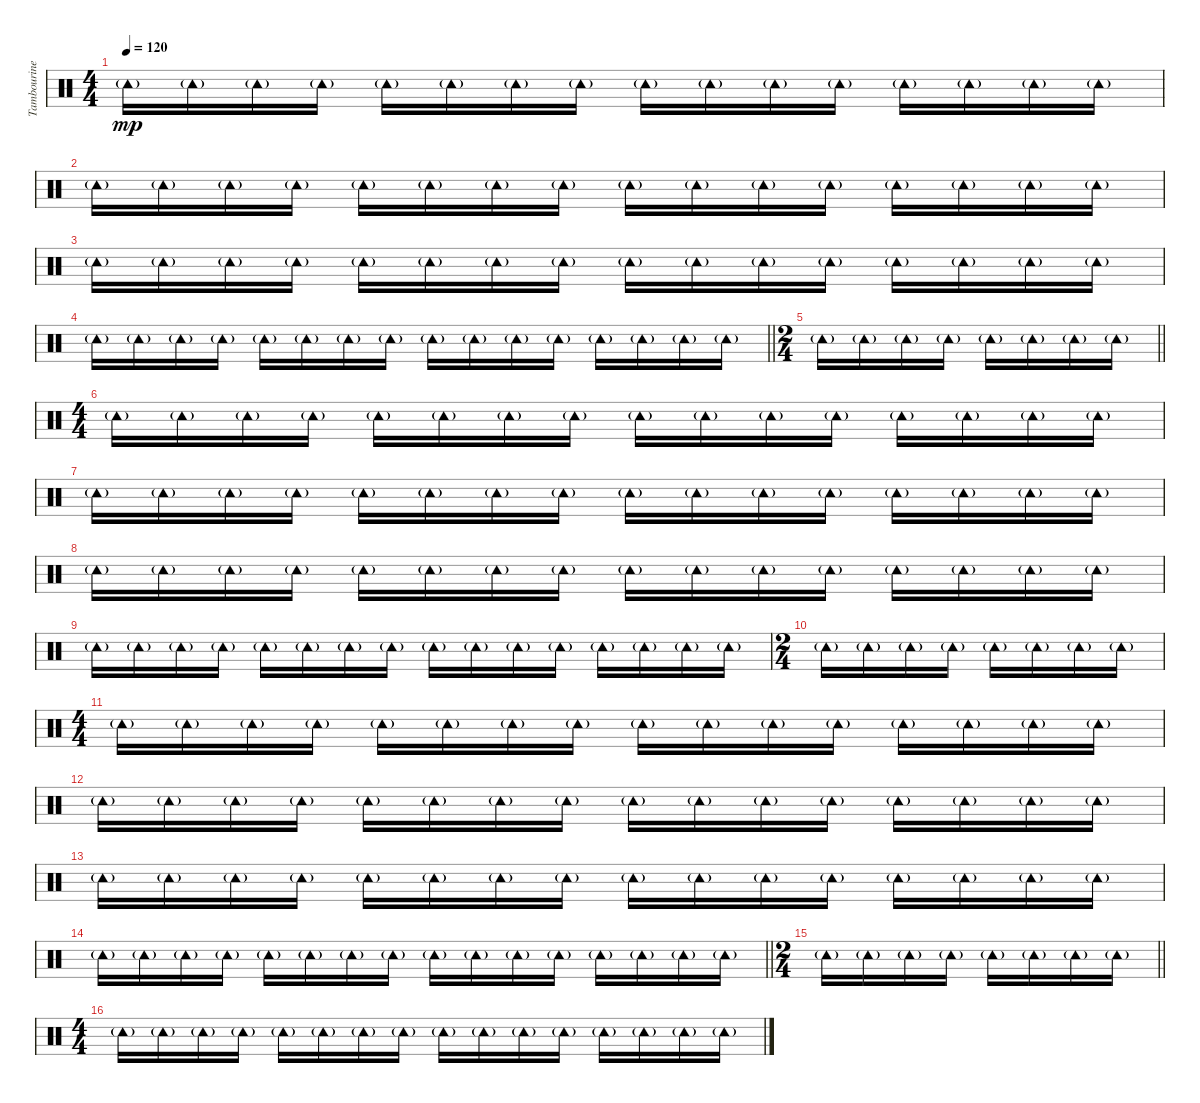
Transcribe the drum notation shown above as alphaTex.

\track ("Tambourine" "Tambourine") {instrument percussion}
\staff {score}
\articulation defaults
\ts (4 4)
\tempo 120
\clef neutral
\ks c "Tambourine (hit)"{g}.16{dy mp} "Tambourine (hit)"{g}.16 "Tambourine (hit)"{g}.16 "Tambourine (hit)"{g}.16 "Tambourine (hit)"{g}.16 "Tambourine (hit)"{g}.16 "Tambourine (hit)"{g}.16 "Tambourine (hit)"{g}.16 "Tambourine (hit)"{g}.16 "Tambourine (hit)"{g}.16 "Tambourine (hit)"{g}.16 "Tambourine (hit)"{g}.16 "Tambourine (hit)"{g}.16 "Tambourine (hit)"{g}.16 "Tambourine (hit)"{g}.16 "Tambourine (hit)"{g}.16
|
"Tambourine (hit)"{g}.16 "Tambourine (hit)"{g}.16 "Tambourine (hit)"{g}.16 "Tambourine (hit)"{g}.16 "Tambourine (hit)"{g}.16 "Tambourine (hit)"{g}.16 "Tambourine (hit)"{g}.16 "Tambourine (hit)"{g}.16 "Tambourine (hit)"{g}.16 "Tambourine (hit)"{g}.16 "Tambourine (hit)"{g}.16 "Tambourine (hit)"{g}.16 "Tambourine (hit)"{g}.16 "Tambourine (hit)"{g}.16 "Tambourine (hit)"{g}.16 "Tambourine (hit)"{g}.16 |
"Tambourine (hit)"{g}.16 "Tambourine (hit)"{g}.16 "Tambourine (hit)"{g}.16 "Tambourine (hit)"{g}.16 "Tambourine (hit)"{g}.16 "Tambourine (hit)"{g}.16 "Tambourine (hit)"{g}.16 "Tambourine (hit)"{g}.16 "Tambourine (hit)"{g}.16 "Tambourine (hit)"{g}.16 "Tambourine (hit)"{g}.16 "Tambourine (hit)"{g}.16 "Tambourine (hit)"{g}.16 "Tambourine (hit)"{g}.16 "Tambourine (hit)"{g}.16 "Tambourine (hit)"{g}.16 |
\barLineRight lightlight "Tambourine (hit)"{g}.16 "Tambourine (hit)"{g}.16 "Tambourine (hit)"{g}.16 "Tambourine (hit)"{g}.16 "Tambourine (hit)"{g}.16 "Tambourine (hit)"{g}.16 "Tambourine (hit)"{g}.16 "Tambourine (hit)"{g}.16 "Tambourine (hit)"{g}.16 "Tambourine (hit)"{g}.16 "Tambourine (hit)"{g}.16 "Tambourine (hit)"{g}.16 "Tambourine (hit)"{g}.16 "Tambourine (hit)"{g}.16 "Tambourine (hit)"{g}.16 "Tambourine (hit)"{g}.16
|
\ts (2 4)
\barLineRight lightlight "Tambourine (hit)"{g}.16 "Tambourine (hit)"{g}.16 "Tambourine (hit)"{g}.16 "Tambourine (hit)"{g}.16 "Tambourine (hit)"{g}.16 "Tambourine (hit)"{g}.16 "Tambourine (hit)"{g}.16 "Tambourine (hit)"{g}.16
|
\ts (4 4)
"Tambourine (hit)"{g}.16 "Tambourine (hit)"{g}.16 "Tambourine (hit)"{g}.16 "Tambourine (hit)"{g}.16 "Tambourine (hit)"{g}.16 "Tambourine (hit)"{g}.16 "Tambourine (hit)"{g}.16 "Tambourine (hit)"{g}.16 "Tambourine (hit)"{g}.16 "Tambourine (hit)"{g}.16 "Tambourine (hit)"{g}.16 "Tambourine (hit)"{g}.16 "Tambourine (hit)"{g}.16 "Tambourine (hit)"{g}.16 "Tambourine (hit)"{g}.16 "Tambourine (hit)"{g}.16 |
"Tambourine (hit)"{g}.16 "Tambourine (hit)"{g}.16 "Tambourine (hit)"{g}.16 "Tambourine (hit)"{g}.16 "Tambourine (hit)"{g}.16 "Tambourine (hit)"{g}.16 "Tambourine (hit)"{g}.16 "Tambourine (hit)"{g}.16 "Tambourine (hit)"{g}.16 "Tambourine (hit)"{g}.16 "Tambourine (hit)"{g}.16 "Tambourine (hit)"{g}.16 "Tambourine (hit)"{g}.16 "Tambourine (hit)"{g}.16 "Tambourine (hit)"{g}.16 "Tambourine (hit)"{g}.16 |
"Tambourine (hit)"{g}.16 "Tambourine (hit)"{g}.16 "Tambourine (hit)"{g}.16 "Tambourine (hit)"{g}.16 "Tambourine (hit)"{g}.16 "Tambourine (hit)"{g}.16 "Tambourine (hit)"{g}.16 "Tambourine (hit)"{g}.16 "Tambourine (hit)"{g}.16 "Tambourine (hit)"{g}.16 "Tambourine (hit)"{g}.16 "Tambourine (hit)"{g}.16 "Tambourine (hit)"{g}.16 "Tambourine (hit)"{g}.16 "Tambourine (hit)"{g}.16 "Tambourine (hit)"{g}.16 |
"Tambourine (hit)"{g}.16 "Tambourine (hit)"{g}.16 "Tambourine (hit)"{g}.16 "Tambourine (hit)"{g}.16 "Tambourine (hit)"{g}.16 "Tambourine (hit)"{g}.16 "Tambourine (hit)"{g}.16 "Tambourine (hit)"{g}.16 "Tambourine (hit)"{g}.16 "Tambourine (hit)"{g}.16 "Tambourine (hit)"{g}.16 "Tambourine (hit)"{g}.16 "Tambourine (hit)"{g}.16 "Tambourine (hit)"{g}.16 "Tambourine (hit)"{g}.16 "Tambourine (hit)"{g}.16 |
\ts (2 4)
"Tambourine (hit)"{g}.16 "Tambourine (hit)"{g}.16 "Tambourine (hit)"{g}.16 "Tambourine (hit)"{g}.16 "Tambourine (hit)"{g}.16 "Tambourine (hit)"{g}.16 "Tambourine (hit)"{g}.16 "Tambourine (hit)"{g}.16 |
\ts (4 4)
"Tambourine (hit)"{g}.16 "Tambourine (hit)"{g}.16 "Tambourine (hit)"{g}.16 "Tambourine (hit)"{g}.16 "Tambourine (hit)"{g}.16 "Tambourine (hit)"{g}.16 "Tambourine (hit)"{g}.16 "Tambourine (hit)"{g}.16 "Tambourine (hit)"{g}.16 "Tambourine (hit)"{g}.16 "Tambourine (hit)"{g}.16 "Tambourine (hit)"{g}.16 "Tambourine (hit)"{g}.16 "Tambourine (hit)"{g}.16 "Tambourine (hit)"{g}.16 "Tambourine (hit)"{g}.16 |
"Tambourine (hit)"{g}.16 "Tambourine (hit)"{g}.16 "Tambourine (hit)"{g}.16 "Tambourine (hit)"{g}.16 "Tambourine (hit)"{g}.16 "Tambourine (hit)"{g}.16 "Tambourine (hit)"{g}.16 "Tambourine (hit)"{g}.16 "Tambourine (hit)"{g}.16 "Tambourine (hit)"{g}.16 "Tambourine (hit)"{g}.16 "Tambourine (hit)"{g}.16 "Tambourine (hit)"{g}.16 "Tambourine (hit)"{g}.16 "Tambourine (hit)"{g}.16 "Tambourine (hit)"{g}.16 |
"Tambourine (hit)"{g}.16 "Tambourine (hit)"{g}.16 "Tambourine (hit)"{g}.16 "Tambourine (hit)"{g}.16 "Tambourine (hit)"{g}.16 "Tambourine (hit)"{g}.16 "Tambourine (hit)"{g}.16 "Tambourine (hit)"{g}.16 "Tambourine (hit)"{g}.16 "Tambourine (hit)"{g}.16 "Tambourine (hit)"{g}.16 "Tambourine (hit)"{g}.16 "Tambourine (hit)"{g}.16 "Tambourine (hit)"{g}.16 "Tambourine (hit)"{g}.16 "Tambourine (hit)"{g}.16 |
\barLineRight lightlight "Tambourine (hit)"{g}.16 "Tambourine (hit)"{g}.16 "Tambourine (hit)"{g}.16 "Tambourine (hit)"{g}.16 "Tambourine (hit)"{g}.16 "Tambourine (hit)"{g}.16 "Tambourine (hit)"{g}.16 "Tambourine (hit)"{g}.16 "Tambourine (hit)"{g}.16 "Tambourine (hit)"{g}.16 "Tambourine (hit)"{g}.16 "Tambourine (hit)"{g}.16 "Tambourine (hit)"{g}.16 "Tambourine (hit)"{g}.16 "Tambourine (hit)"{g}.16 "Tambourine (hit)"{g}.16
|
\ts (2 4)
\barLineRight lightlight "Tambourine (hit)"{g}.16 "Tambourine (hit)"{g}.16 "Tambourine (hit)"{g}.16 "Tambourine (hit)"{g}.16 "Tambourine (hit)"{g}.16 "Tambourine (hit)"{g}.16 "Tambourine (hit)"{g}.16 "Tambourine (hit)"{g}.16
|
\ts (4 4)
"Tambourine (hit)"{g}.16 "Tambourine (hit)"{g}.16 "Tambourine (hit)"{g}.16 "Tambourine (hit)"{g}.16 "Tambourine (hit)"{g}.16 "Tambourine (hit)"{g}.16 "Tambourine (hit)"{g}.16 "Tambourine (hit)"{g}.16 "Tambourine (hit)"{g}.16 "Tambourine (hit)"{g}.16 "Tambourine (hit)"{g}.16 "Tambourine (hit)"{g}.16 "Tambourine (hit)"{g}.16 "Tambourine (hit)"{g}.16 "Tambourine (hit)"{g}.16 "Tambourine (hit)"{g}.16
